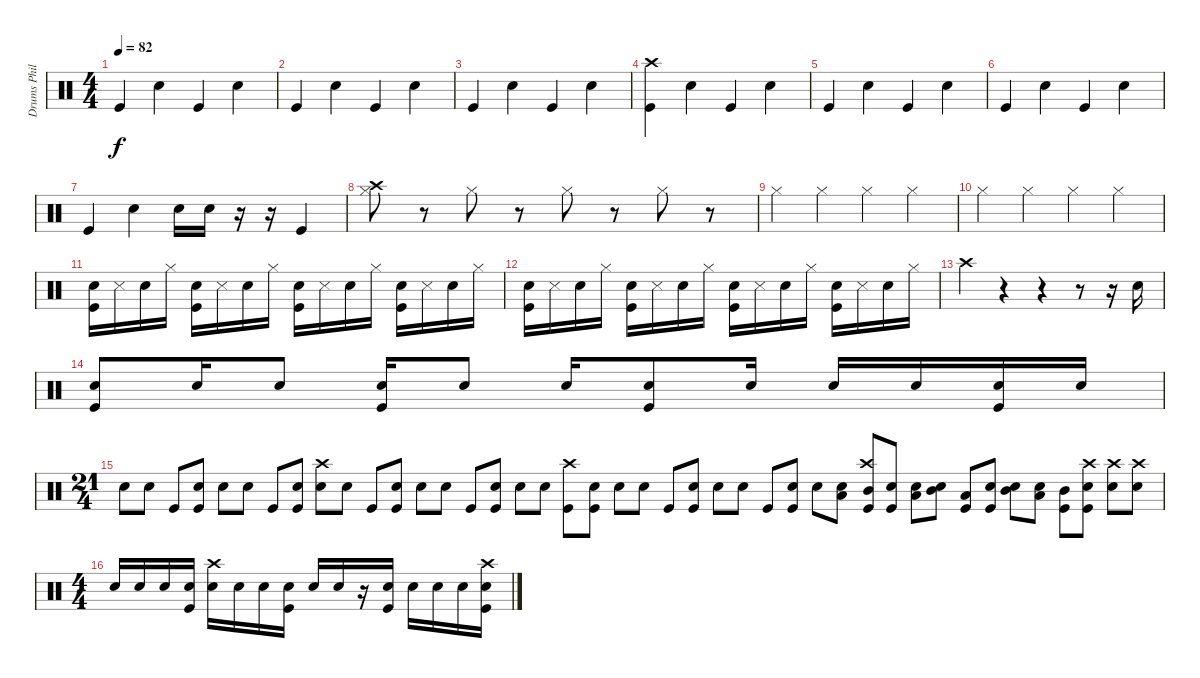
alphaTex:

\track ("Drums Phill" "Drums Phil") {instrument percussion}
\staff {score}
\articulation defaults
\ts (4 4)
\tempo 82
\clef neutral
\ks c "Kick (hit)".4{dy f} "Snare (hit) 2".4 "Kick (hit)".4 "Snare (hit) 2".4
|
"Kick (hit)".4 "Snare (hit) 2".4 "Kick (hit)".4 "Snare (hit) 2".4 |
"Kick (hit)".4 "Snare (hit) 2".4 "Kick (hit)".4 "Snare (hit) 2".4 |
("Crash high (hit)" "Kick (hit)").4 "Snare (hit) 2".4 "Kick (hit)".4 "Snare (hit) 2".4 |
"Kick (hit)".4 "Snare (hit) 2".4 "Kick (hit)".4 "Snare (hit) 2".4 |
"Kick (hit)".4 "Snare (hit) 2".4 "Kick (hit)".4 "Snare (hit) 2".4 |
"Kick (hit)".4 "Snare (hit) 2".4 "Snare (hit) 2".16 "Snare (hit) 2".16 r.16 r.16 "Kick (hit)".4 |
("Crash high (hit)" "Hi-Hat (closed)").8 r.8 "Hi-Hat (closed)".8 r.8 "Hi-Hat (closed)".8 r.8 "Hi-Hat (closed)".8 r.8 |
"Hi-Hat (closed)".4 "Hi-Hat (closed)".4 "Hi-Hat (closed)".4 "Hi-Hat (closed)".4 |
"Hi-Hat (closed)".4 "Hi-Hat (closed)".4 "Hi-Hat (closed)".4 "Hi-Hat (closed)".4 |
("Snare (hit) 2" "Kick (hit)").16 "Snare (side stick) 3".16 "Snare (hit) 2".16 "Hi-Hat (closed)".16 ("Snare (hit) 2" "Kick (hit)").16 "Snare (side stick) 3".16 "Snare (hit) 2".16 "Hi-Hat (closed)".16 ("Snare (hit) 2" "Kick (hit)").16 "Snare (side stick) 3".16 "Snare (hit) 2".16 "Hi-Hat (closed)".16 ("Snare (hit) 2" "Kick (hit)").16 "Snare (side stick) 3".16 "Snare (hit) 2".16 "Hi-Hat (closed)".16 |
("Snare (hit) 2" "Kick (hit)").16 "Snare (side stick) 3".16 "Snare (hit) 2".16 "Hi-Hat (closed)".16 ("Snare (hit) 2" "Kick (hit)").16 "Snare (side stick) 3".16 "Snare (hit) 2".16 "Hi-Hat (closed)".16 ("Snare (hit) 2" "Kick (hit)").16 "Snare (side stick) 3".16 "Snare (hit) 2".16 "Hi-Hat (closed)".16 ("Snare (hit) 2" "Kick (hit)").16 "Snare (side stick) 3".16 "Snare (hit) 2".16 "Hi-Hat (closed)".16 |
"Crash high (hit)".4 r.4 r.4 r.8 r.16 "Snare (hit) 2".16 |
("Snare (hit) 2" "Kick (hit)").8 "Snare (hit) 2".16 "Snare (hit) 2".8 ("Snare (hit) 2" "Kick (hit)").16 "Snare (hit) 2".8 "Snare (hit) 2".16 ("Snare (hit) 2" "Kick (hit)").8 "Snare (hit) 2".16 "Snare (hit) 2".16 "Snare (hit) 2".16 ("Snare (hit) 2" "Kick (hit)").16 "Snare (hit) 2".16 |
\ts (21 4)
"Snare (hit) 2".8 "Snare (hit) 2".8 "Kick (hit)".8 ("Snare (hit) 2" "Kick (hit)").8 "Snare (hit) 2".8 "Snare (hit) 2".8 "Kick (hit)".8 ("Snare (hit) 2" "Kick (hit)").8 ("Crash high (hit)" "Snare (hit) 2").8 "Snare (hit) 2".8 "Kick (hit)".8 ("Snare (hit) 2" "Kick (hit)").8 "Snare (hit) 2".8 "Snare (hit) 2".8 "Kick (hit)".8 ("Snare (hit) 2" "Kick (hit)").8 "Snare (hit) 2".8 "Snare (hit) 2".8 ("Crash high (hit)" "Kick (hit)").8 ("Snare (hit) 2" "Kick (hit)").8 "Snare (hit) 2".8 "Snare (hit) 2".8 "Kick (hit)".8 ("Snare (hit) 2" "Kick (hit)").8 "Snare (hit) 2".8 "Snare (hit) 2".8 "Kick (hit)".8 ("Snare (hit) 2" "Kick (hit)").8 "Snare (hit) 2".8 ("Low Tom (hit)" "Snare (hit) 2").8 ("Crash high (hit)" "Mid Tom (hit)" "Kick (hit)").8 ("Snare (hit) 2" "Kick (hit)").8 ("Low Tom (hit)" "Snare (hit) 2").8 ("Mid Tom (hit)" "Snare (hit) 2").8 ("Low Tom (hit)" "Kick (hit)").8 ("Snare (hit) 2" "Kick (hit)").8 ("Mid Tom (hit)" "Snare (hit) 2").8 ("Low Tom (hit)" "Snare (hit) 2").8 ("Mid Tom (hit)" "Kick (hit)").8 ("Crash high (hit)" "Snare (hit) 2" "Kick (hit)").8 ("Crash high (hit)" "Snare (hit) 2").8 ("Crash high (hit)" "Snare (hit) 2").8 |
\ts (4 4)
"Snare (hit) 2".16 "Snare (hit) 2".16 "Snare (hit) 2".16 ("Snare (hit) 2" "Kick (hit)").16 ("Crash high (hit)" "Snare (hit) 2").16 "Snare (hit) 2".16 "Snare (hit) 2".16 ("Snare (hit) 2" "Kick (hit)").16 "Snare (hit) 2".16 "Snare (hit) 2".16 r.16 ("Snare (hit) 2" "Kick (hit)").16 "Snare (hit) 2".16 "Snare (hit) 2".16 "Snare (hit) 2".16 ("Crash high (hit)" "Snare (hit) 2" "Kick (hit)").16
